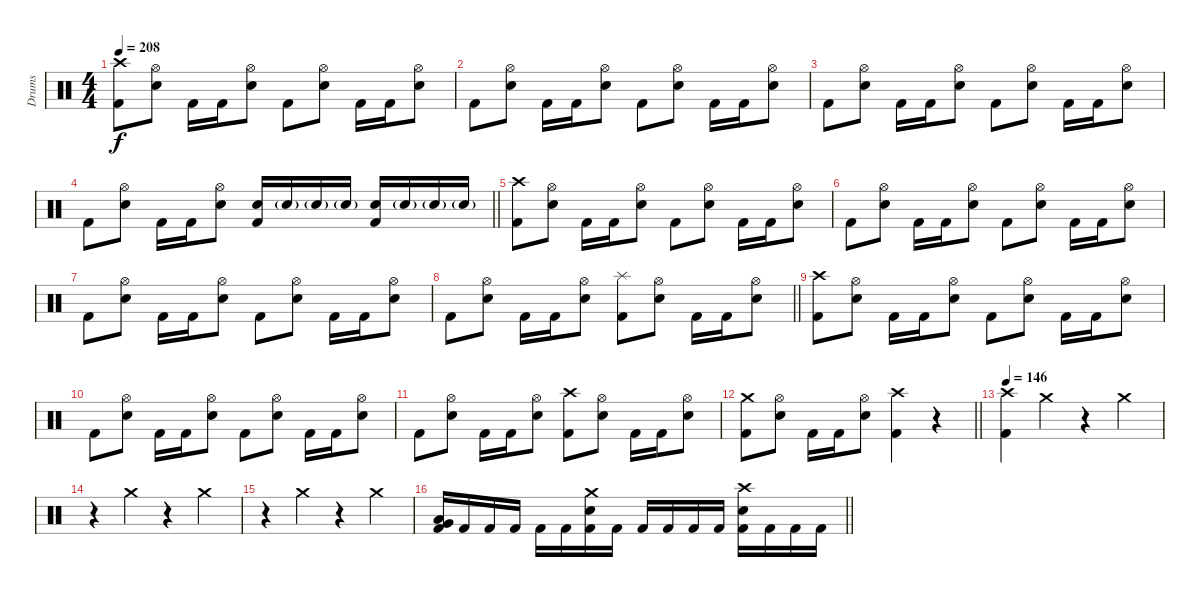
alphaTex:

\track ("Drums" "Drums") {instrument percussion}
\staff {score}
\articulation defaults
\ts (4 4)
\tempo 208
\clef neutral
\ks c
("Crash high (hit)" "Kick (hit) 2").8{dy f} ("Hi-Hat (open)" "Electric Snare (hit)").8 "Kick (hit) 2".16 "Kick (hit) 2".16 ("Hi-Hat (open)" "Electric Snare (hit)").8 "Kick (hit) 2".8 ("Hi-Hat (open)" "Electric Snare (hit)").8 "Kick (hit) 2".16 "Kick (hit) 2".16 ("Hi-Hat (open)" "Electric Snare (hit)").8 |
"Kick (hit) 2".8 ("Hi-Hat (open)" "Electric Snare (hit)").8 "Kick (hit) 2".16 "Kick (hit) 2".16 ("Hi-Hat (open)" "Electric Snare (hit)").8 "Kick (hit) 2".8 ("Hi-Hat (open)" "Electric Snare (hit)").8 "Kick (hit) 2".16 "Kick (hit) 2".16 ("Hi-Hat (open)" "Electric Snare (hit)").8 |
"Kick (hit) 2".8 ("Hi-Hat (open)" "Electric Snare (hit)").8 "Kick (hit) 2".16 "Kick (hit) 2".16 ("Hi-Hat (open)" "Electric Snare (hit)").8 "Kick (hit) 2".8 ("Hi-Hat (open)" "Electric Snare (hit)").8 "Kick (hit) 2".16 "Kick (hit) 2".16 ("Hi-Hat (open)" "Electric Snare (hit)").8 |
\barLineRight lightlight "Kick (hit) 2".8
("Hi-Hat (open)" "Electric Snare (hit)").8 "Kick (hit) 2".16 "Kick (hit) 2".16 ("Hi-Hat (open)" "Electric Snare (hit)").8 ("Electric Snare (hit)" "Kick (hit) 2").16 "Electric Snare (hit)"{g}.16 "Electric Snare (hit)"{g}.16 "Electric Snare (hit)"{g}.16 ("Electric Snare (hit)" "Kick (hit) 2").16 "Electric Snare (hit)"{g}.16 "Electric Snare (hit)"{g}.16 "Electric Snare (hit)"{g}.16 |
("Crash high (hit)" "Kick (hit) 2").8 ("Hi-Hat (open)" "Electric Snare (hit)").8 "Kick (hit) 2".16 "Kick (hit) 2".16 ("Hi-Hat (open)" "Electric Snare (hit)").8 "Kick (hit) 2".8 ("Hi-Hat (open)" "Electric Snare (hit)").8 "Kick (hit) 2".16 "Kick (hit) 2".16 ("Hi-Hat (open)" "Electric Snare (hit)").8 |
"Kick (hit) 2".8 ("Hi-Hat (open)" "Electric Snare (hit)").8 "Kick (hit) 2".16 "Kick (hit) 2".16 ("Hi-Hat (open)" "Electric Snare (hit)").8 "Kick (hit) 2".8 ("Hi-Hat (open)" "Electric Snare (hit)").8 "Kick (hit) 2".16 "Kick (hit) 2".16 ("Hi-Hat (open)" "Electric Snare (hit)").8 |
"Kick (hit) 2".8 ("Hi-Hat (open)" "Electric Snare (hit)").8 "Kick (hit) 2".16 "Kick (hit) 2".16 ("Hi-Hat (open)" "Electric Snare (hit)").8 "Kick (hit) 2".8 ("Hi-Hat (open)" "Electric Snare (hit)").8 "Kick (hit) 2".16 "Kick (hit) 2".16 ("Hi-Hat (open)" "Electric Snare (hit)").8 |
\barLineRight lightlight "Kick (hit) 2".8
("Hi-Hat (open)" "Electric Snare (hit)").8 "Kick (hit) 2".16 "Kick (hit) 2".16 ("Hi-Hat (open)" "Electric Snare (hit)").8 ("Splash (hit)" "Kick (hit) 2").8 ("Hi-Hat (open)" "Electric Snare (hit)").8 "Kick (hit) 2".16 "Kick (hit) 2".16 ("Hi-Hat (open)" "Electric Snare (hit)").8 |
("Crash high (hit)" "Kick (hit) 2").8 ("Hi-Hat (open)" "Electric Snare (hit)").8 "Kick (hit) 2".16 "Kick (hit) 2".16 ("Hi-Hat (open)" "Electric Snare (hit)").8 "Kick (hit) 2".8 ("Hi-Hat (open)" "Electric Snare (hit)").8 "Kick (hit) 2".16 "Kick (hit) 2".16 ("Hi-Hat (open)" "Electric Snare (hit)").8 |
"Kick (hit) 2".8 ("Hi-Hat (open)" "Electric Snare (hit)").8 "Kick (hit) 2".16 "Kick (hit) 2".16 ("Hi-Hat (open)" "Electric Snare (hit)").8 "Kick (hit) 2".8 ("Hi-Hat (open)" "Electric Snare (hit)").8 "Kick (hit) 2".16 "Kick (hit) 2".16 ("Hi-Hat (open)" "Electric Snare (hit)").8 |
"Kick (hit) 2".8 ("Hi-Hat (open)" "Electric Snare (hit)").8 "Kick (hit) 2".16 "Kick (hit) 2".16 ("Hi-Hat (open)" "Electric Snare (hit)").8 ("Crash high (hit)" "Kick (hit) 2").8 ("Hi-Hat (open)" "Electric Snare (hit)").8 "Kick (hit) 2".16 "Kick (hit) 2".16 ("Hi-Hat (open)" "Electric Snare (hit)").8 |
\barLineRight lightlight
("Crash medium (hit)" "Kick (hit) 2").8 ("Hi-Hat (open)" "Electric Snare (hit)").8 "Kick (hit) 2".16 "Kick (hit) 2".16 ("Hi-Hat (open)" "Electric Snare (hit)").8 ("Crash high (hit)" "Kick (hit) 2").4 r.4 |
\tempo 146
("Crash high (hit)" "Kick (hit) 2").4 "Crash medium (hit)".4 r.4 "Crash medium (hit)".4 |
r.4 "Crash medium (hit)".4 r.4 "Crash medium (hit)".4 |
r.4 "Crash medium (hit)".4 r.4 "Crash medium (hit)".4 |
\barLineRight lightlight
("Very Low Tom (hit)" "Low Floor Tom (hit)" "Kick (hit) 2").16 "Kick (hit) 2".16 "Kick (hit) 2".16 "Kick (hit) 2".16 "Kick (hit) 2".16 "Kick (hit) 2".16 ("Crash medium (hit)" "Electric Snare (hit)" "Kick (hit) 2").16 "Kick (hit) 2".16 "Kick (hit) 2".16 "Kick (hit) 2".16 "Kick (hit) 2".16 "Kick (hit) 2".16 ("Crash high (hit)" "Electric Snare (hit)" "Kick (hit) 2").16 "Kick (hit) 2".16 "Kick (hit) 2".16 "Kick (hit) 2".16
